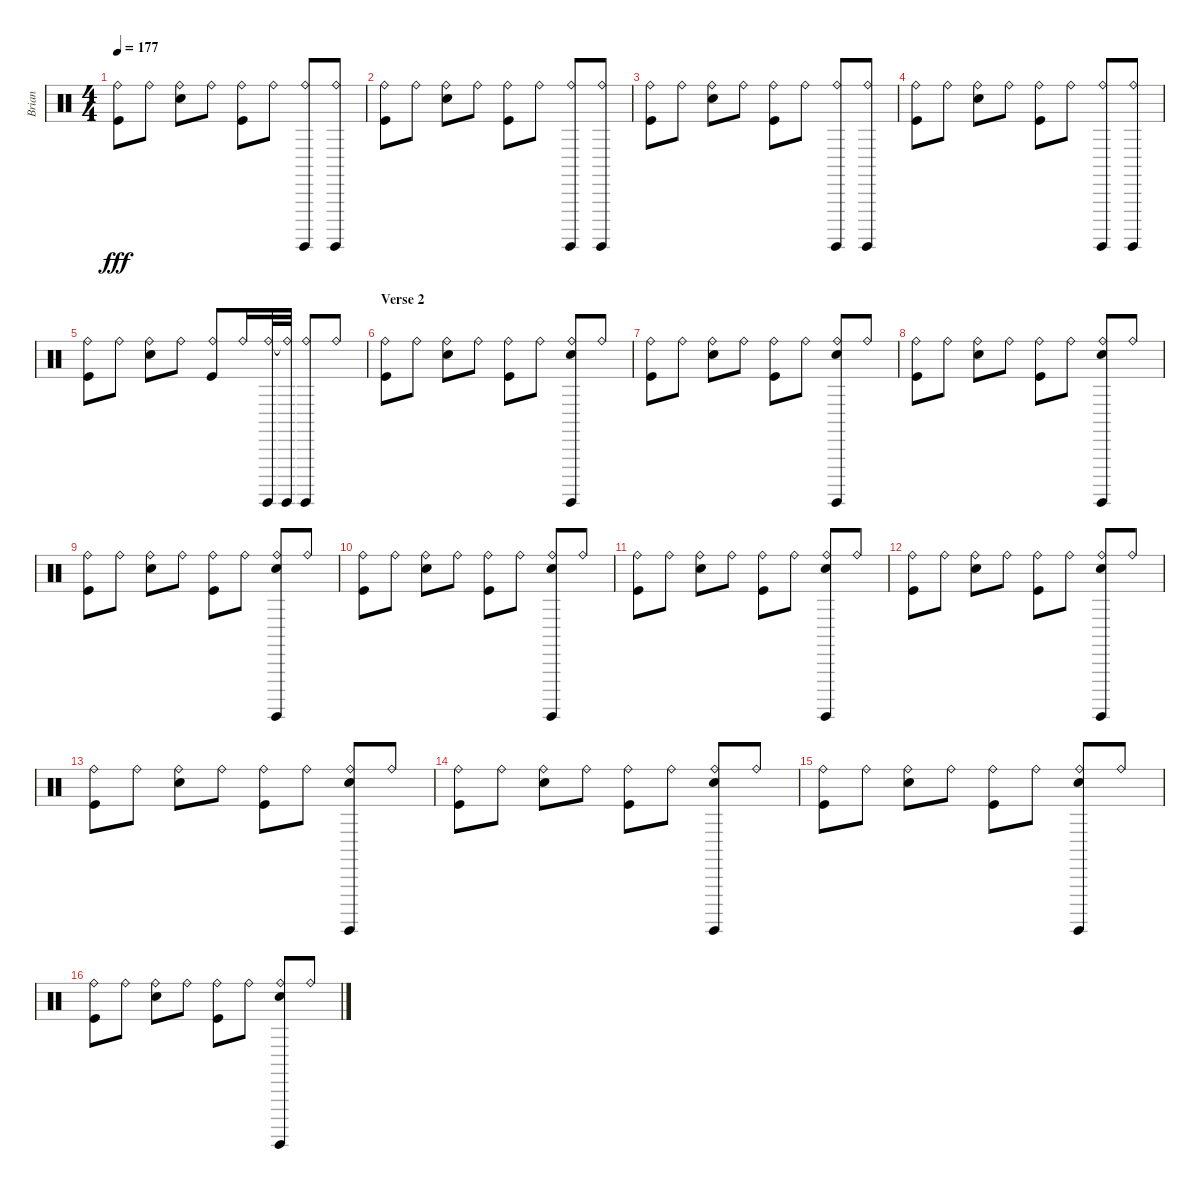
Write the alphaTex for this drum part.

\track ("Brian" "Brian") {instrument percussion}
\staff {score}
\articulation defaults
\ts (4 4)
\tempo 177
\clef neutral
\ks c
("Ride (bell)" "Kick (hit)").8{dy fff} "Ride (bell)".8 ("Ride (bell)" "Electric Snare (hit)").8 "Ride (bell)".8 ("Ride (bell)" "Kick (hit)").8 "Ride (bell)".8 ("Surdo (hit)" "Ride (bell)").8 ("Surdo (hit)" "Ride (bell)").8 |
("Ride (bell)" "Kick (hit)").8 "Ride (bell)".8 ("Ride (bell)" "Electric Snare (hit)").8 "Ride (bell)".8 ("Ride (bell)" "Kick (hit)").8 "Ride (bell)".8 ("Surdo (hit)" "Ride (bell)").8 ("Surdo (hit)" "Ride (bell)").8 |
("Ride (bell)" "Kick (hit)").8 "Ride (bell)".8 ("Ride (bell)" "Electric Snare (hit)").8 "Ride (bell)".8 ("Ride (bell)" "Kick (hit)").8 "Ride (bell)".8 ("Surdo (hit)" "Ride (bell)").8 ("Surdo (hit)" "Ride (bell)").8 |
("Ride (bell)" "Kick (hit)").8 "Ride (bell)".8 ("Ride (bell)" "Electric Snare (hit)").8 "Ride (bell)".8 ("Ride (bell)" "Kick (hit)").8 "Ride (bell)".8 ("Surdo (hit)" "Ride (bell)").8 ("Surdo (hit)" "Ride (bell)").8 |
("Ride (bell)" "Kick (hit)").8 "Ride (bell)".8 ("Ride (bell)" "Electric Snare (hit)").8 "Ride (bell)".8 ("Ride (bell)" "Kick (hit)").8 "Ride (bell)".16 ("Surdo (hit)" "Ride (bell)").32 ("Surdo (hit)" "Ride (bell)"{t}).32 ("Surdo (hit)" "Ride (bell)").8 "Ride (bell)".8 |
\section ("" "Verse 2")
("Ride (bell)" "Kick (hit)").8 "Ride (bell)".8 ("Ride (bell)" "Electric Snare (hit)").8 "Ride (bell)".8 ("Ride (bell)" "Kick (hit)").8 "Ride (bell)".8 ("Surdo (hit)" "Ride (bell)" "Electric Snare (hit)").8 "Ride (bell)".8 |
("Ride (bell)" "Kick (hit)").8 "Ride (bell)".8 ("Ride (bell)" "Electric Snare (hit)").8 "Ride (bell)".8 ("Ride (bell)" "Kick (hit)").8 "Ride (bell)".8 ("Surdo (hit)" "Ride (bell)" "Electric Snare (hit)").8 "Ride (bell)".8 |
("Ride (bell)" "Kick (hit)").8 "Ride (bell)".8 ("Ride (bell)" "Electric Snare (hit)").8 "Ride (bell)".8 ("Ride (bell)" "Kick (hit)").8 "Ride (bell)".8 ("Surdo (hit)" "Ride (bell)" "Electric Snare (hit)").8 "Ride (bell)".8 |
("Ride (bell)" "Kick (hit)").8 "Ride (bell)".8 ("Ride (bell)" "Electric Snare (hit)").8 "Ride (bell)".8 ("Ride (bell)" "Kick (hit)").8 "Ride (bell)".8 ("Surdo (hit)" "Ride (bell)" "Electric Snare (hit)").8 "Ride (bell)".8 |
("Ride (bell)" "Kick (hit)").8 "Ride (bell)".8 ("Ride (bell)" "Electric Snare (hit)").8 "Ride (bell)".8 ("Ride (bell)" "Kick (hit)").8 "Ride (bell)".8 ("Surdo (hit)" "Ride (bell)" "Electric Snare (hit)").8 "Ride (bell)".8 |
("Ride (bell)" "Kick (hit)").8 "Ride (bell)".8 ("Ride (bell)" "Electric Snare (hit)").8 "Ride (bell)".8 ("Ride (bell)" "Kick (hit)").8 "Ride (bell)".8 ("Surdo (hit)" "Ride (bell)" "Electric Snare (hit)").8 "Ride (bell)".8 |
("Ride (bell)" "Kick (hit)").8 "Ride (bell)".8 ("Ride (bell)" "Electric Snare (hit)").8 "Ride (bell)".8 ("Ride (bell)" "Kick (hit)").8 "Ride (bell)".8 ("Surdo (hit)" "Ride (bell)" "Electric Snare (hit)").8 "Ride (bell)".8 |
("Ride (bell)" "Kick (hit)").8 "Ride (bell)".8 ("Ride (bell)" "Electric Snare (hit)").8 "Ride (bell)".8 ("Ride (bell)" "Kick (hit)").8 "Ride (bell)".8 ("Surdo (hit)" "Ride (bell)" "Electric Snare (hit)").8 "Ride (bell)".8 |
("Ride (bell)" "Kick (hit)").8 "Ride (bell)".8 ("Ride (bell)" "Electric Snare (hit)").8 "Ride (bell)".8 ("Ride (bell)" "Kick (hit)").8 "Ride (bell)".8 ("Surdo (hit)" "Ride (bell)" "Electric Snare (hit)").8 "Ride (bell)".8 |
("Ride (bell)" "Kick (hit)").8 "Ride (bell)".8 ("Ride (bell)" "Electric Snare (hit)").8 "Ride (bell)".8 ("Ride (bell)" "Kick (hit)").8 "Ride (bell)".8 ("Surdo (hit)" "Ride (bell)" "Electric Snare (hit)").8 "Ride (bell)".8 |
("Ride (bell)" "Kick (hit)").8 "Ride (bell)".8 ("Ride (bell)" "Electric Snare (hit)").8 "Ride (bell)".8 ("Ride (bell)" "Kick (hit)").8 "Ride (bell)".8 ("Surdo (hit)" "Ride (bell)" "Electric Snare (hit)").8 "Ride (bell)".8
